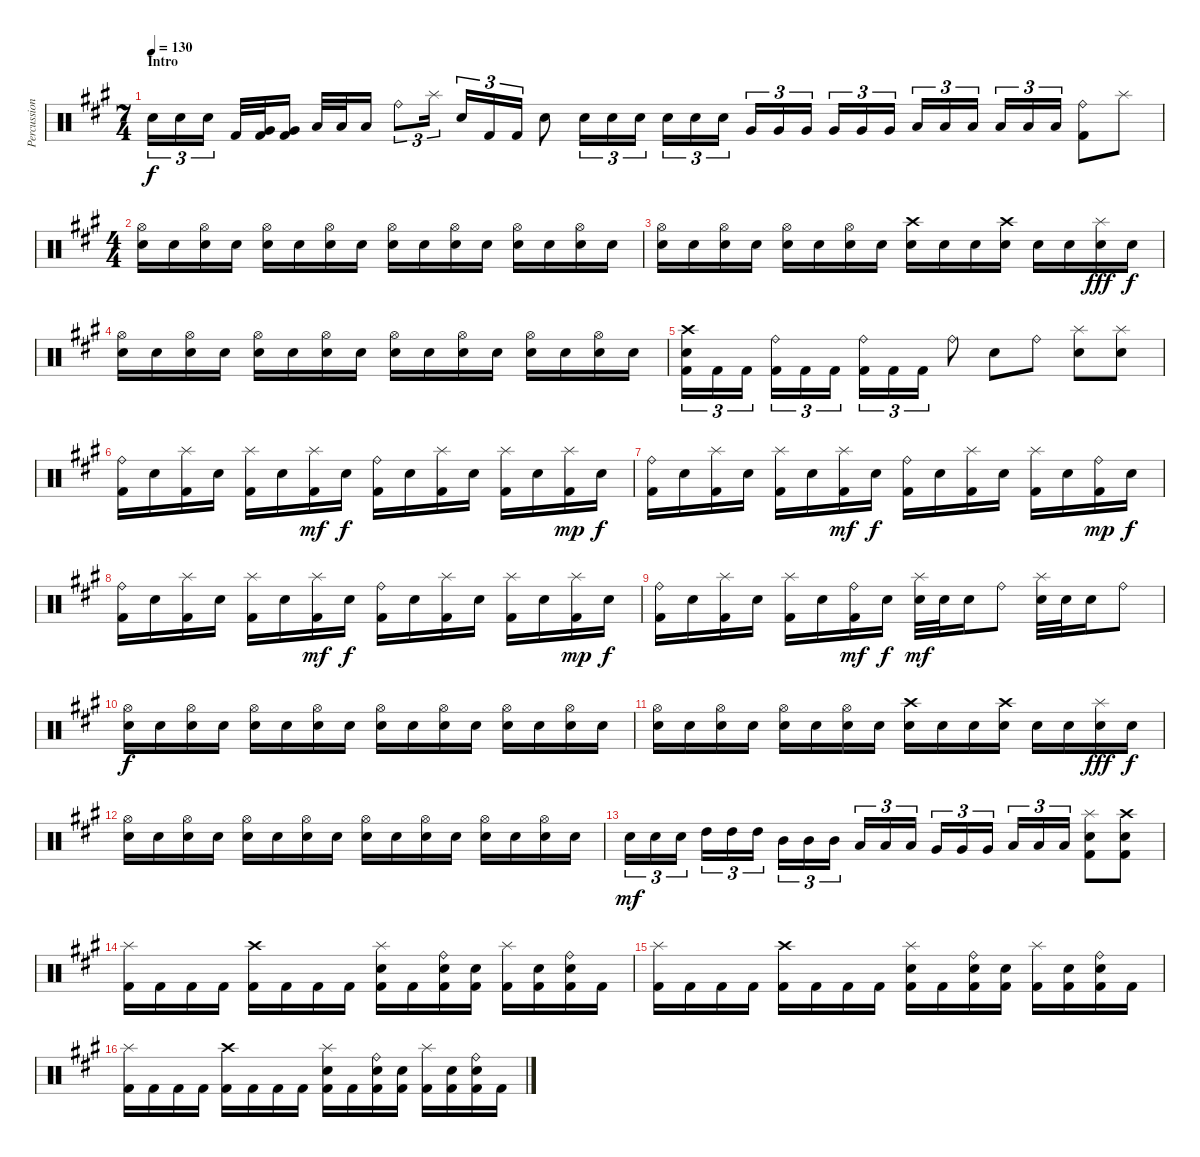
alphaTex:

\track ("Percussion" "Percussion") {instrument percussion bank 127}
\staff {score}
\articulation defaults
\ts (7 4)
\section ("" "Intro")
\tempo 130
\clef neutral
\ks a "Electric Snare (hit)".16{tu (3 2) dy f} "Electric Snare (hit)".16{tu (3 2)} "Electric Snare (hit)".16{tu (3 2) beam splitsecondary} "Kick (hit) 2".32
("Very Low Tom (hit)" "Kick (hit) 2").32 ("Very Low Tom (hit)" "Kick (hit) 2").16 "Low Floor Tom (hit)".32 "Low Floor Tom (hit)".32 "Low Floor Tom (hit)".16 "Ride (bell)".8{tu (3 2)} "Splash (hit)".16{tu (3 2)} "Electric Snare (hit)".16{tu (3 2)} "Kick (hit) 2".16{tu (3 2)} "Kick (hit) 2".16{tu (3 2)} "Electric Snare (hit)".8 "Electric Snare (hit)".16{tu (3 2)} "Electric Snare (hit)".16{tu (3 2)} "Electric Snare (hit)".16{tu (3 2) beam splitsecondary} "Electric Snare (hit)".16{tu (3 2)} "Electric Snare (hit)".16{tu (3 2)} "Electric Snare (hit)".16{tu (3 2)} "Very Low Tom (hit)".16{tu (3 2)} "Very Low Tom (hit)".16{tu (3 2)} "Very Low Tom (hit)".16{tu (3 2) beam splitsecondary} "Very Low Tom (hit)".16{tu (3 2)} "Very Low Tom (hit)".16{tu (3 2)} "Very Low Tom (hit)".16{tu (3 2)} "Low Floor Tom (hit)".16{tu (3 2)} "Low Floor Tom (hit)".16{tu (3 2)} "Low Floor Tom (hit)".16{tu (3 2) beam splitsecondary} "Low Floor Tom (hit)".16{tu (3 2)} "Low Floor Tom (hit)".16{tu (3 2)} "Low Floor Tom (hit)".16{tu (3 2)} ("Ride (bell)" "Kick (hit) 2").8 "Splash (hit)".8 |
\ts (4 4)
("Hi-Hat (open)" "Electric Snare (hit)").16 "Electric Snare (hit)".16 ("Hi-Hat (open)" "Electric Snare (hit)").16 "Electric Snare (hit)".16 ("Hi-Hat (open)" "Electric Snare (hit)").16 "Electric Snare (hit)".16 ("Hi-Hat (open)" "Electric Snare (hit)").16 "Electric Snare (hit)".16 ("Hi-Hat (open)" "Electric Snare (hit)").16 "Electric Snare (hit)".16 ("Hi-Hat (open)" "Electric Snare (hit)").16 "Electric Snare (hit)".16 ("Hi-Hat (open)" "Electric Snare (hit)").16 "Electric Snare (hit)".16 ("Hi-Hat (open)" "Electric Snare (hit)").16 "Electric Snare (hit)".16 |
("Hi-Hat (open)" "Electric Snare (hit)").16 "Electric Snare (hit)".16 ("Hi-Hat (open)" "Electric Snare (hit)").16 "Electric Snare (hit)".16 ("Hi-Hat (open)" "Electric Snare (hit)").16 "Electric Snare (hit)".16 ("Hi-Hat (open)" "Electric Snare (hit)").16 "Electric Snare (hit)".16 ("Crash high (hit)" "Electric Snare (hit)").16 "Electric Snare (hit)".16 "Electric Snare (hit)".16 ("Crash high (hit)" "Electric Snare (hit)").16 "Electric Snare (hit)".16 "Electric Snare (hit)".16 ("Splash (hit)" "Electric Snare (hit)").16{dy fff} "Electric Snare (hit)".16{dy f} |
("Hi-Hat (open)" "Electric Snare (hit)").16 "Electric Snare (hit)".16 ("Hi-Hat (open)" "Electric Snare (hit)").16 "Electric Snare (hit)".16 ("Hi-Hat (open)" "Electric Snare (hit)").16 "Electric Snare (hit)".16 ("Hi-Hat (open)" "Electric Snare (hit)").16 "Electric Snare (hit)".16 ("Hi-Hat (open)" "Electric Snare (hit)").16 "Electric Snare (hit)".16 ("Hi-Hat (open)" "Electric Snare (hit)").16 "Electric Snare (hit)".16 ("Hi-Hat (open)" "Electric Snare (hit)").16 "Electric Snare (hit)".16 ("Hi-Hat (open)" "Electric Snare (hit)").16 "Electric Snare (hit)".16 |
("Crash high (hit)" "Electric Snare (hit)" "Kick (hit) 2").16{tu (3 2)} "Kick (hit) 2".16{tu (3 2)} "Kick (hit) 2".16{tu (3 2) beam splitsecondary} ("Ride (bell)" "Kick (hit) 2").16{tu (3 2)} "Kick (hit) 2".16{tu (3 2)} "Kick (hit) 2".16{tu (3 2)} ("Ride (bell)" "Kick (hit) 2").16{tu (3 2)} "Kick (hit) 2".16{tu (3 2)} "Kick (hit) 2".16{tu (3 2)} "Ride (bell)".8 "Electric Snare (hit)".8 "Ride (bell)".8 ("Splash (hit)" "Electric Snare (hit)").8 ("Splash (hit)" "Electric Snare (hit)").8 |
("Ride (bell)" "Kick (hit) 2").16 "Electric Snare (hit)".16 ("Splash (hit)" "Kick (hit) 2").16 "Electric Snare (hit)".16 ("Splash (hit)" "Kick (hit) 2").16 "Electric Snare (hit)".16 ("Splash (hit)" "Kick (hit) 2").16{dy mf} "Electric Snare (hit)".16{dy f} ("Ride (bell)" "Kick (hit) 2").16 "Electric Snare (hit)".16 ("Splash (hit)" "Kick (hit) 2").16 "Electric Snare (hit)".16 ("Splash (hit)" "Kick (hit) 2").16 "Electric Snare (hit)".16 ("Splash (hit)" "Kick (hit) 2").16{dy mp} "Electric Snare (hit)".16{dy f} |
("Ride (bell)" "Kick (hit) 2").16 "Electric Snare (hit)".16 ("Splash (hit)" "Kick (hit) 2").16 "Electric Snare (hit)".16 ("Splash (hit)" "Kick (hit) 2").16 "Electric Snare (hit)".16 ("Splash (hit)" "Kick (hit) 2").16{dy mf} "Electric Snare (hit)".16{dy f} ("Ride (bell)" "Kick (hit) 2").16 "Electric Snare (hit)".16 ("Splash (hit)" "Kick (hit) 2").16 "Electric Snare (hit)".16 ("Splash (hit)" "Kick (hit) 2").16 "Electric Snare (hit)".16 ("Ride (bell)" "Kick (hit) 2").16{dy mp} "Electric Snare (hit)".16{dy f} |
("Ride (bell)" "Kick (hit) 2").16 "Electric Snare (hit)".16 ("Splash (hit)" "Kick (hit) 2").16 "Electric Snare (hit)".16 ("Splash (hit)" "Kick (hit) 2").16 "Electric Snare (hit)".16 ("Splash (hit)" "Kick (hit) 2").16{dy mf} "Electric Snare (hit)".16{dy f} ("Ride (bell)" "Kick (hit) 2").16 "Electric Snare (hit)".16 ("Splash (hit)" "Kick (hit) 2").16 "Electric Snare (hit)".16 ("Splash (hit)" "Kick (hit) 2").16 "Electric Snare (hit)".16 ("Splash (hit)" "Kick (hit) 2").16{dy mp} "Electric Snare (hit)".16{dy f} |
("Ride (bell)" "Kick (hit) 2").16 "Electric Snare (hit)".16 ("Splash (hit)" "Kick (hit) 2").16 "Electric Snare (hit)".16 ("Splash (hit)" "Kick (hit) 2").16 "Electric Snare (hit)".16 ("Ride (bell)" "Kick (hit) 2").16{dy mf} "Electric Snare (hit)".16{dy f} ("Splash (hit)" "Electric Snare (hit)").32{dy mf} "Electric Snare (hit)".32 "Electric Snare (hit)".16 "Ride (bell)".8 ("Splash (hit)" "Electric Snare (hit)").32 "Electric Snare (hit)".32 "Electric Snare (hit)".16 "Ride (bell)".8 |
("Hi-Hat (open)" "Electric Snare (hit)").16{dy f} "Electric Snare (hit)".16 ("Hi-Hat (open)" "Electric Snare (hit)").16 "Electric Snare (hit)".16 ("Hi-Hat (open)" "Electric Snare (hit)").16 "Electric Snare (hit)".16 ("Hi-Hat (open)" "Electric Snare (hit)").16 "Electric Snare (hit)".16 ("Hi-Hat (open)" "Electric Snare (hit)").16 "Electric Snare (hit)".16 ("Hi-Hat (open)" "Electric Snare (hit)").16 "Electric Snare (hit)".16 ("Hi-Hat (open)" "Electric Snare (hit)").16 "Electric Snare (hit)".16 ("Hi-Hat (open)" "Electric Snare (hit)").16 "Electric Snare (hit)".16 |
("Hi-Hat (open)" "Electric Snare (hit)").16 "Electric Snare (hit)".16 ("Hi-Hat (open)" "Electric Snare (hit)").16 "Electric Snare (hit)".16 ("Hi-Hat (open)" "Electric Snare (hit)").16 "Electric Snare (hit)".16 ("Hi-Hat (open)" "Electric Snare (hit)").16 "Electric Snare (hit)".16 ("Crash high (hit)" "Electric Snare (hit)").16 "Electric Snare (hit)".16 "Electric Snare (hit)".16 ("Crash high (hit)" "Electric Snare (hit)").16 "Electric Snare (hit)".16 "Electric Snare (hit)".16 ("Splash (hit)" "Electric Snare (hit)").16{dy fff} "Electric Snare (hit)".16{dy f} |
("Hi-Hat (open)" "Electric Snare (hit)").16 "Electric Snare (hit)".16 ("Hi-Hat (open)" "Electric Snare (hit)").16 "Electric Snare (hit)".16 ("Hi-Hat (open)" "Electric Snare (hit)").16 "Electric Snare (hit)".16 ("Hi-Hat (open)" "Electric Snare (hit)").16 "Electric Snare (hit)".16 ("Hi-Hat (open)" "Electric Snare (hit)").16 "Electric Snare (hit)".16 ("Hi-Hat (open)" "Electric Snare (hit)").16 "Electric Snare (hit)".16 ("Hi-Hat (open)" "Electric Snare (hit)").16 "Electric Snare (hit)".16 ("Hi-Hat (open)" "Electric Snare (hit)").16 "Electric Snare (hit)".16 |
"Electric Snare (hit)".16{tu (3 2) dy mf} "Electric Snare (hit)".16{tu (3 2)} "Electric Snare (hit)".16{tu (3 2) beam splitsecondary} "High Tom (hit)".16{tu (3 2)} "High Tom (hit)".16{tu (3 2)} "High Tom (hit)".16{tu (3 2)} "Mid Tom (hit)".16{tu (3 2)} "Mid Tom (hit)".16{tu (3 2)} "Mid Tom (hit)".16{tu (3 2) beam splitsecondary} "Low Tom (hit)".16{tu (3 2)} "Low Tom (hit)".16{tu (3 2)} "Low Tom (hit)".16{tu (3 2)} "Very Low Tom (hit)".16{tu (3 2)} "Very Low Tom (hit)".16{tu (3 2)} "Very Low Tom (hit)".16{tu (3 2) beam splitsecondary} "Low Floor Tom (hit)".16{tu (3 2)} "Low Floor Tom (hit)".16{tu (3 2)} "Low Floor Tom (hit)".16{tu (3 2)} ("Splash (hit)" "Electric Snare (hit)" "Kick (hit) 2").8 ("Crash high (hit)" "Electric Snare (hit)" "Kick (hit) 2").8 |
("Splash (hit)" "Kick (hit) 2").16 "Kick (hit) 2".16 "Kick (hit) 2".16 "Kick (hit) 2".16 ("Crash high (hit)" "Kick (hit) 2").16 "Kick (hit) 2".16 "Kick (hit) 2".16 "Kick (hit) 2".16 ("Splash (hit)" "Electric Snare (hit)" "Kick (hit) 2").16 "Kick (hit) 2".16 ("Ride (bell)" "Electric Snare (hit)" "Kick (hit) 2").16 ("Electric Snare (hit)" "Kick (hit) 2").16 ("Splash (hit)" "Kick (hit) 2").16 ("Electric Snare (hit)" "Kick (hit) 2").16 ("Ride (bell)" "Electric Snare (hit)" "Kick (hit) 2").16 "Kick (hit) 2".16 |
("Splash (hit)" "Kick (hit) 2").16 "Kick (hit) 2".16 "Kick (hit) 2".16 "Kick (hit) 2".16 ("Crash high (hit)" "Kick (hit) 2").16 "Kick (hit) 2".16 "Kick (hit) 2".16 "Kick (hit) 2".16 ("Splash (hit)" "Electric Snare (hit)" "Kick (hit) 2").16 "Kick (hit) 2".16 ("Ride (bell)" "Electric Snare (hit)" "Kick (hit) 2").16 ("Electric Snare (hit)" "Kick (hit) 2").16 ("Splash (hit)" "Kick (hit) 2").16 ("Electric Snare (hit)" "Kick (hit) 2").16 ("Ride (bell)" "Electric Snare (hit)" "Kick (hit) 2").16 "Kick (hit) 2".16 |
("Splash (hit)" "Kick (hit) 2").16 "Kick (hit) 2".16 "Kick (hit) 2".16 "Kick (hit) 2".16 ("Crash high (hit)" "Kick (hit) 2").16 "Kick (hit) 2".16 "Kick (hit) 2".16 "Kick (hit) 2".16 ("Splash (hit)" "Electric Snare (hit)" "Kick (hit) 2").16 "Kick (hit) 2".16 ("Ride (bell)" "Electric Snare (hit)" "Kick (hit) 2").16 ("Electric Snare (hit)" "Kick (hit) 2").16 ("Splash (hit)" "Kick (hit) 2").16 ("Electric Snare (hit)" "Kick (hit) 2").16 ("Ride (bell)" "Electric Snare (hit)" "Kick (hit) 2").16 "Kick (hit) 2".16
